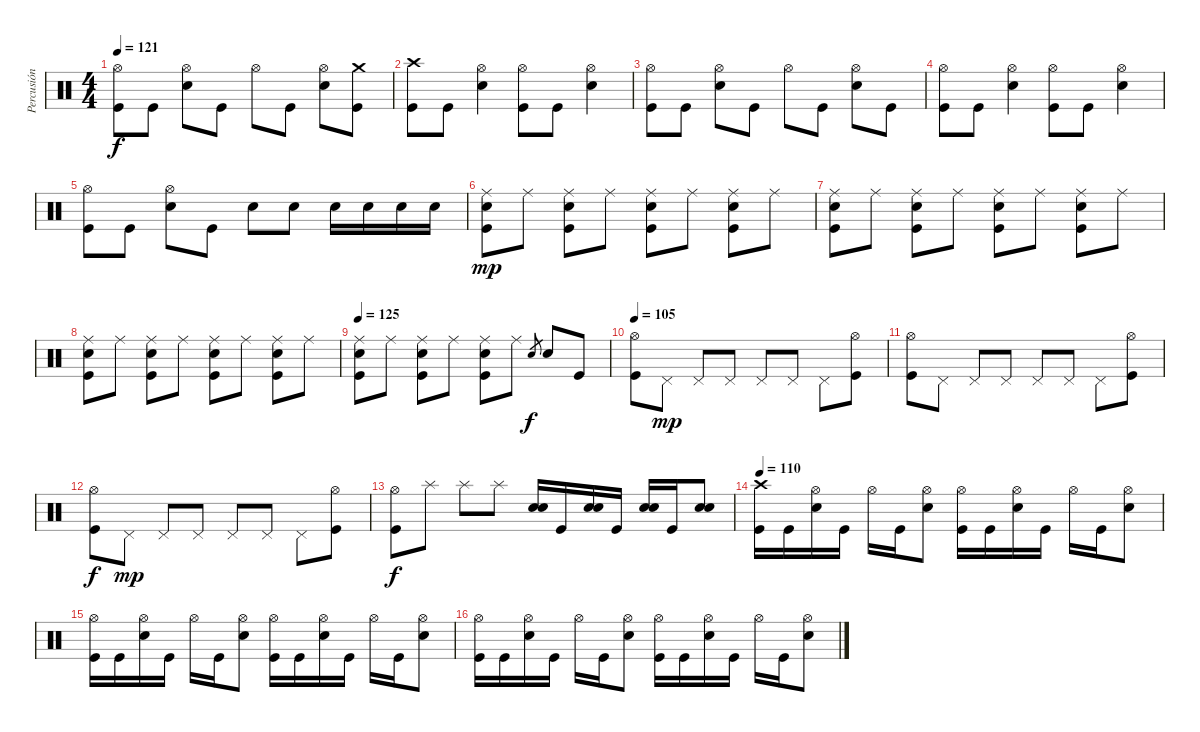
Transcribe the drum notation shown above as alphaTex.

\track ("Percusión" "Percusión") {instrument percussion}
\staff {score}
\articulation defaults
\ts (4 4)
\tempo 121
\clef neutral
\ks c
("Hi-Hat (open)" "Kick (hit)").8{dy f} "Kick (hit)".8 ("Hi-Hat (open)" "Snare (hit) 2").8 "Kick (hit)".8 "Hi-Hat (open)".8 "Kick (hit)".8 ("Hi-Hat (open)" "Snare (hit) 2").8 ("Crash medium (hit)" "Kick (hit)").8 |
("Crash high (hit)" "Kick (hit)").8 "Kick (hit)".8 ("Hi-Hat (open)" "Snare (hit) 2").4 ("Hi-Hat (open)" "Kick (hit)").8 "Kick (hit)".8 ("Hi-Hat (open)" "Snare (hit) 2").4 |
("Hi-Hat (open)" "Kick (hit)").8 "Kick (hit)".8 ("Hi-Hat (open)" "Snare (hit) 2").8 "Kick (hit)".8 "Hi-Hat (open)".8 "Kick (hit)".8 ("Hi-Hat (open)" "Snare (hit) 2").8 "Kick (hit)".8 |
("Hi-Hat (open)" "Kick (hit)").8 "Kick (hit)".8 ("Hi-Hat (open)" "Snare (hit) 2").4 ("Hi-Hat (open)" "Kick (hit)").8 "Kick (hit)".8 ("Hi-Hat (open)" "Snare (hit) 2").4 |
("Hi-Hat (open)" "Kick (hit)").8 "Kick (hit)".8 ("Hi-Hat (open)" "Snare (hit) 2").8 "Kick (hit)".8 "Snare (hit) 2".8 "Snare (hit) 2".8 "Snare (hit) 2".16 "Snare (hit) 2".16 "Snare (hit) 2".16 "Snare (hit) 2".16 |
("Ride (middle)" "Snare (hit) 2" "Kick (hit)").8{dy mp} "Ride (middle)".8 ("Ride (middle)" "Snare (hit) 2" "Kick (hit)").8 "Ride (middle)".8 ("Ride (middle)" "Snare (hit) 2" "Kick (hit)").8 "Ride (middle)".8 ("Ride (middle)" "Snare (hit) 2" "Kick (hit)").8 "Ride (middle)".8 |
("Ride (middle)" "Snare (hit) 2" "Kick (hit)").8 "Ride (middle)".8 ("Ride (middle)" "Snare (hit) 2" "Kick (hit)").8 "Ride (middle)".8 ("Ride (middle)" "Snare (hit) 2" "Kick (hit)").8 "Ride (middle)".8 ("Ride (middle)" "Snare (hit) 2" "Kick (hit)").8 "Ride (middle)".8 |
("Ride (middle)" "Snare (hit) 2" "Kick (hit)").8 "Ride (middle)".8 ("Ride (middle)" "Snare (hit) 2" "Kick (hit)").8 "Ride (middle)".8 ("Ride (middle)" "Snare (hit) 2" "Kick (hit)").8 "Ride (middle)".8 ("Ride (middle)" "Snare (hit) 2" "Kick (hit)").8 "Ride (middle)".8 |
\tempo 125
("Ride (middle)" "Snare (hit) 2" "Kick (hit)").8 "Ride (middle)".8 ("Ride (middle)" "Snare (hit) 2" "Kick (hit)").8 "Ride (middle)".8 ("Ride (middle)" "Snare (hit) 2" "Kick (hit)").8 "Ride (middle)".8 "Snare (hit) 2".8{gr dy f} "Snare (hit) 2".8 "Kick (hit)".8 |
\tempo 105
("Hi-Hat (open)" "Kick (hit)").8 "Pedal Hi-Hat (hit)".8{dy mp} "Pedal Hi-Hat (hit)".8 "Pedal Hi-Hat (hit)".8 "Pedal Hi-Hat (hit)".8 "Pedal Hi-Hat (hit)".8 "Pedal Hi-Hat (hit)".8 ("Hi-Hat (open)" "Kick (hit)").8 |
("Hi-Hat (open)" "Kick (hit)").8 "Pedal Hi-Hat (hit)".8 "Pedal Hi-Hat (hit)".8 "Pedal Hi-Hat (hit)".8 "Pedal Hi-Hat (hit)".8 "Pedal Hi-Hat (hit)".8 "Pedal Hi-Hat (hit)".8 ("Hi-Hat (open)" "Kick (hit)").8 |
("Hi-Hat (open)" "Kick (hit)").8{dy f} "Pedal Hi-Hat (hit)".8{dy mp} "Pedal Hi-Hat (hit)".8 "Pedal Hi-Hat (hit)".8 "Pedal Hi-Hat (hit)".8 "Pedal Hi-Hat (hit)".8 "Pedal Hi-Hat (hit)".8 ("Hi-Hat (open)" "Kick (hit)").8 |
("Hi-Hat (open)" "Kick (hit)").8{dy f} "Splash (hit)".8 "Splash (hit)".8 "Splash (hit)".8 ("Snare (hit) 2" "Snare (hit) 2").16 "Kick (hit)".16 ("Snare (hit) 2" "Snare (hit) 2").16 "Kick (hit)".16 ("Snare (hit) 2" "Snare (hit) 2").16 "Kick (hit)".16 ("Snare (hit) 2" "Snare (hit) 2").8 |
\tempo 110
("Crash high (hit)" "Kick (hit)").16 "Kick (hit)".16 ("Hi-Hat (open)" "Snare (hit) 2").16 "Kick (hit)".16 "Hi-Hat (open)".16 "Kick (hit)".16 ("Hi-Hat (open)" "Snare (hit) 2").8 ("Hi-Hat (open)" "Kick (hit)").16 "Kick (hit)".16 ("Hi-Hat (open)" "Snare (hit) 2").16 "Kick (hit)".16 "Hi-Hat (open)".16 "Kick (hit)".16 ("Hi-Hat (open)" "Snare (hit) 2").8 |
("Hi-Hat (open)" "Kick (hit)").16 "Kick (hit)".16 ("Hi-Hat (open)" "Snare (hit) 2").16 "Kick (hit)".16 "Hi-Hat (open)".16 "Kick (hit)".16 ("Hi-Hat (open)" "Snare (hit) 2").8 ("Hi-Hat (open)" "Kick (hit)").16 "Kick (hit)".16 ("Hi-Hat (open)" "Snare (hit) 2").16 "Kick (hit)".16 "Hi-Hat (open)".16 "Kick (hit)".16 ("Hi-Hat (open)" "Snare (hit) 2").8 |
("Hi-Hat (open)" "Kick (hit)").16 "Kick (hit)".16 ("Hi-Hat (open)" "Snare (hit) 2").16 "Kick (hit)".16 "Hi-Hat (open)".16 "Kick (hit)".16 ("Hi-Hat (open)" "Snare (hit) 2").8 ("Hi-Hat (open)" "Kick (hit)").16 "Kick (hit)".16 ("Hi-Hat (open)" "Snare (hit) 2").16 "Kick (hit)".16 "Hi-Hat (open)".16 "Kick (hit)".16 ("Hi-Hat (open)" "Snare (hit) 2").8
